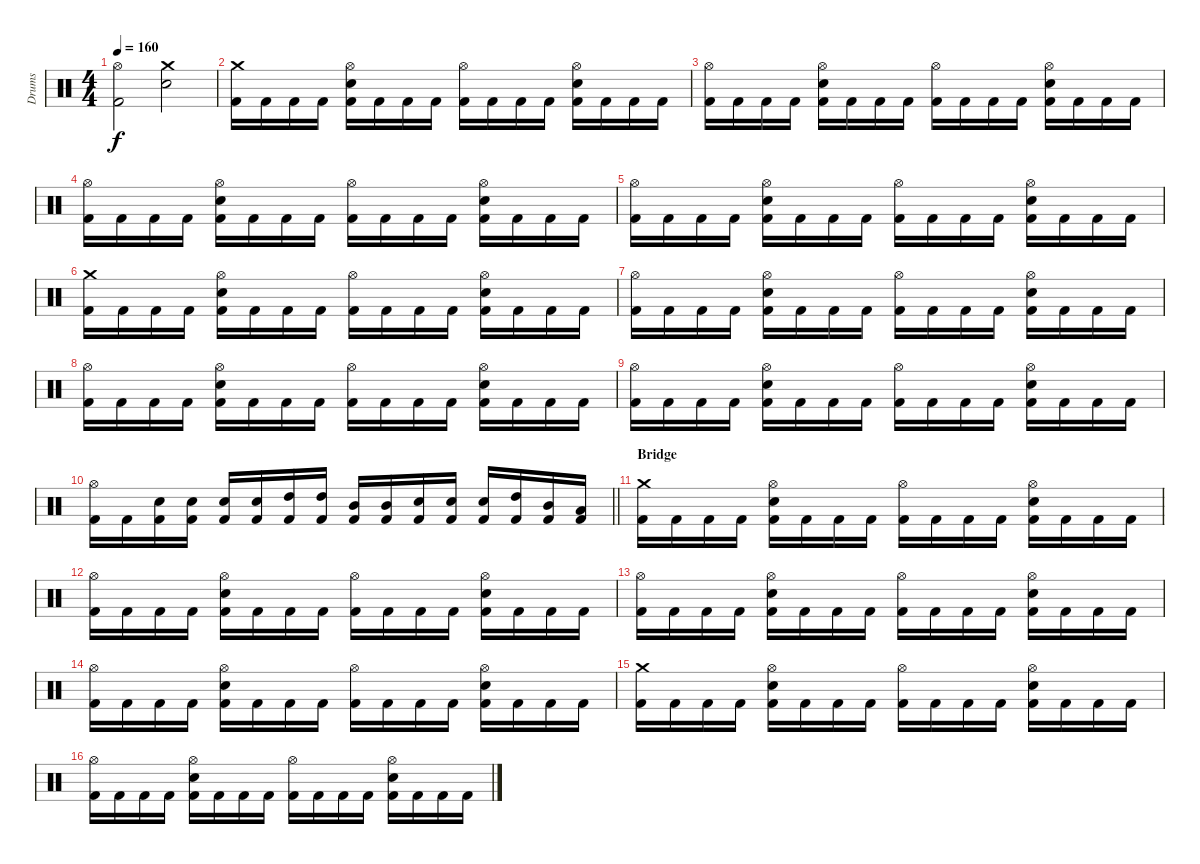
\track ("Drums" "Drums") {instrument percussion}
\staff {score}
\articulation defaults
\ts (4 4)
\tempo 160
\clef neutral
\ks c
("Hi-Hat (open)" "Kick (hit) 2").2{dy f} ("Crash medium (hit)" "Electric Snare (hit)").2 |
("Kick (hit) 2" "Crash medium (hit)").16 "Kick (hit) 2".16 "Kick (hit) 2".16 "Kick (hit) 2".16 ("Kick (hit) 2" "Electric Snare (hit)" "Hi-Hat (open)").16 "Kick (hit) 2".16 "Kick (hit) 2".16 "Kick (hit) 2".16 ("Kick (hit) 2" "Hi-Hat (open)").16 "Kick (hit) 2".16 "Kick (hit) 2".16 "Kick (hit) 2".16 ("Kick (hit) 2" "Electric Snare (hit)" "Hi-Hat (open)").16 "Kick (hit) 2".16 "Kick (hit) 2".16 "Kick (hit) 2".16 |
("Kick (hit) 2" "Hi-Hat (open)").16 "Kick (hit) 2".16 "Kick (hit) 2".16 "Kick (hit) 2".16 ("Kick (hit) 2" "Electric Snare (hit)" "Hi-Hat (open)").16 "Kick (hit) 2".16 "Kick (hit) 2".16 "Kick (hit) 2".16 ("Kick (hit) 2" "Hi-Hat (open)").16 "Kick (hit) 2".16 "Kick (hit) 2".16 "Kick (hit) 2".16 ("Kick (hit) 2" "Electric Snare (hit)" "Hi-Hat (open)").16 "Kick (hit) 2".16 "Kick (hit) 2".16 "Kick (hit) 2".16 |
("Kick (hit) 2" "Hi-Hat (open)").16 "Kick (hit) 2".16 "Kick (hit) 2".16 "Kick (hit) 2".16 ("Kick (hit) 2" "Electric Snare (hit)" "Hi-Hat (open)").16 "Kick (hit) 2".16 "Kick (hit) 2".16 "Kick (hit) 2".16 ("Kick (hit) 2" "Hi-Hat (open)").16 "Kick (hit) 2".16 "Kick (hit) 2".16 "Kick (hit) 2".16 ("Kick (hit) 2" "Electric Snare (hit)" "Hi-Hat (open)").16 "Kick (hit) 2".16 "Kick (hit) 2".16 "Kick (hit) 2".16 |
("Kick (hit) 2" "Hi-Hat (open)").16 "Kick (hit) 2".16 "Kick (hit) 2".16 "Kick (hit) 2".16 ("Kick (hit) 2" "Electric Snare (hit)" "Hi-Hat (open)").16 "Kick (hit) 2".16 "Kick (hit) 2".16 "Kick (hit) 2".16 ("Kick (hit) 2" "Hi-Hat (open)").16 "Kick (hit) 2".16 "Kick (hit) 2".16 "Kick (hit) 2".16 ("Kick (hit) 2" "Electric Snare (hit)" "Hi-Hat (open)").16 "Kick (hit) 2".16 "Kick (hit) 2".16 "Kick (hit) 2".16 |
("Kick (hit) 2" "Crash medium (hit)").16 "Kick (hit) 2".16 "Kick (hit) 2".16 "Kick (hit) 2".16 ("Kick (hit) 2" "Electric Snare (hit)" "Hi-Hat (open)").16 "Kick (hit) 2".16 "Kick (hit) 2".16 "Kick (hit) 2".16 ("Kick (hit) 2" "Hi-Hat (open)").16 "Kick (hit) 2".16 "Kick (hit) 2".16 "Kick (hit) 2".16 ("Kick (hit) 2" "Electric Snare (hit)" "Hi-Hat (open)").16 "Kick (hit) 2".16 "Kick (hit) 2".16 "Kick (hit) 2".16 |
("Kick (hit) 2" "Hi-Hat (open)").16 "Kick (hit) 2".16 "Kick (hit) 2".16 "Kick (hit) 2".16 ("Kick (hit) 2" "Electric Snare (hit)" "Hi-Hat (open)").16 "Kick (hit) 2".16 "Kick (hit) 2".16 "Kick (hit) 2".16 ("Kick (hit) 2" "Hi-Hat (open)").16 "Kick (hit) 2".16 "Kick (hit) 2".16 "Kick (hit) 2".16 ("Kick (hit) 2" "Electric Snare (hit)" "Hi-Hat (open)").16 "Kick (hit) 2".16 "Kick (hit) 2".16 "Kick (hit) 2".16 |
("Kick (hit) 2" "Hi-Hat (open)").16 "Kick (hit) 2".16 "Kick (hit) 2".16 "Kick (hit) 2".16 ("Kick (hit) 2" "Electric Snare (hit)" "Hi-Hat (open)").16 "Kick (hit) 2".16 "Kick (hit) 2".16 "Kick (hit) 2".16 ("Kick (hit) 2" "Hi-Hat (open)").16 "Kick (hit) 2".16 "Kick (hit) 2".16 "Kick (hit) 2".16 ("Kick (hit) 2" "Electric Snare (hit)" "Hi-Hat (open)").16 "Kick (hit) 2".16 "Kick (hit) 2".16 "Kick (hit) 2".16 |
("Kick (hit) 2" "Hi-Hat (open)").16 "Kick (hit) 2".16 "Kick (hit) 2".16 "Kick (hit) 2".16 ("Kick (hit) 2" "Electric Snare (hit)" "Hi-Hat (open)").16 "Kick (hit) 2".16 "Kick (hit) 2".16 "Kick (hit) 2".16 ("Kick (hit) 2" "Hi-Hat (open)").16 "Kick (hit) 2".16 "Kick (hit) 2".16 "Kick (hit) 2".16 ("Kick (hit) 2" "Electric Snare (hit)" "Hi-Hat (open)").16 "Kick (hit) 2".16 "Kick (hit) 2".16 "Kick (hit) 2".16 |
\barLineRight lightlight
("Kick (hit) 2" "Hi-Hat (open)").16 "Kick (hit) 2".16 ("Kick (hit) 2" "Electric Snare (hit)").16 ("Kick (hit) 2" "Electric Snare (hit)").16 ("Kick (hit) 2" "Electric Snare (hit)").16 ("Kick (hit) 2" "Electric Snare (hit)").16 ("Kick (hit) 2" "High Tom (hit)").16 ("Kick (hit) 2" "High Tom (hit)").16 ("Kick (hit) 2" "Mid Tom (hit)").16 ("Kick (hit) 2" "Mid Tom (hit)").16 ("Kick (hit) 2" "Electric Snare (hit)").16 ("Kick (hit) 2" "Electric Snare (hit)").16 ("Kick (hit) 2" "Electric Snare (hit)").16 ("Kick (hit) 2" "High Tom (hit)").16 ("Kick (hit) 2" "Mid Tom (hit)").16 ("Kick (hit) 2" "Low Tom (hit)").16 |
\section ("" "Bridge")
("Kick (hit) 2" "Crash medium (hit)").16 "Kick (hit) 2".16 "Kick (hit) 2".16 "Kick (hit) 2".16 ("Kick (hit) 2" "Electric Snare (hit)" "Hi-Hat (open)").16 "Kick (hit) 2".16 "Kick (hit) 2".16 "Kick (hit) 2".16 ("Kick (hit) 2" "Hi-Hat (open)").16 "Kick (hit) 2".16 "Kick (hit) 2".16 "Kick (hit) 2".16 ("Kick (hit) 2" "Electric Snare (hit)" "Hi-Hat (open)").16 "Kick (hit) 2".16 "Kick (hit) 2".16 "Kick (hit) 2".16 |
("Kick (hit) 2" "Hi-Hat (open)").16 "Kick (hit) 2".16 "Kick (hit) 2".16 "Kick (hit) 2".16 ("Kick (hit) 2" "Electric Snare (hit)" "Hi-Hat (open)").16 "Kick (hit) 2".16 "Kick (hit) 2".16 "Kick (hit) 2".16 ("Kick (hit) 2" "Hi-Hat (open)").16 "Kick (hit) 2".16 "Kick (hit) 2".16 "Kick (hit) 2".16 ("Kick (hit) 2" "Electric Snare (hit)" "Hi-Hat (open)").16 "Kick (hit) 2".16 "Kick (hit) 2".16 "Kick (hit) 2".16 |
("Kick (hit) 2" "Hi-Hat (open)").16 "Kick (hit) 2".16 "Kick (hit) 2".16 "Kick (hit) 2".16 ("Kick (hit) 2" "Electric Snare (hit)" "Hi-Hat (open)").16 "Kick (hit) 2".16 "Kick (hit) 2".16 "Kick (hit) 2".16 ("Kick (hit) 2" "Hi-Hat (open)").16 "Kick (hit) 2".16 "Kick (hit) 2".16 "Kick (hit) 2".16 ("Kick (hit) 2" "Electric Snare (hit)" "Hi-Hat (open)").16 "Kick (hit) 2".16 "Kick (hit) 2".16 "Kick (hit) 2".16 |
("Kick (hit) 2" "Hi-Hat (open)").16 "Kick (hit) 2".16 "Kick (hit) 2".16 "Kick (hit) 2".16 ("Kick (hit) 2" "Electric Snare (hit)" "Hi-Hat (open)").16 "Kick (hit) 2".16 "Kick (hit) 2".16 "Kick (hit) 2".16 ("Kick (hit) 2" "Hi-Hat (open)").16 "Kick (hit) 2".16 "Kick (hit) 2".16 "Kick (hit) 2".16 ("Kick (hit) 2" "Electric Snare (hit)" "Hi-Hat (open)").16 "Kick (hit) 2".16 "Kick (hit) 2".16 "Kick (hit) 2".16 |
("Kick (hit) 2" "Crash medium (hit)").16 "Kick (hit) 2".16 "Kick (hit) 2".16 "Kick (hit) 2".16 ("Kick (hit) 2" "Electric Snare (hit)" "Hi-Hat (open)").16 "Kick (hit) 2".16 "Kick (hit) 2".16 "Kick (hit) 2".16 ("Kick (hit) 2" "Hi-Hat (open)").16 "Kick (hit) 2".16 "Kick (hit) 2".16 "Kick (hit) 2".16 ("Kick (hit) 2" "Electric Snare (hit)" "Hi-Hat (open)").16 "Kick (hit) 2".16 "Kick (hit) 2".16 "Kick (hit) 2".16 |
("Kick (hit) 2" "Hi-Hat (open)").16 "Kick (hit) 2".16 "Kick (hit) 2".16 "Kick (hit) 2".16 ("Kick (hit) 2" "Electric Snare (hit)" "Hi-Hat (open)").16 "Kick (hit) 2".16 "Kick (hit) 2".16 "Kick (hit) 2".16 ("Kick (hit) 2" "Hi-Hat (open)").16 "Kick (hit) 2".16 "Kick (hit) 2".16 "Kick (hit) 2".16 ("Kick (hit) 2" "Electric Snare (hit)" "Hi-Hat (open)").16 "Kick (hit) 2".16 "Kick (hit) 2".16 "Kick (hit) 2".16
